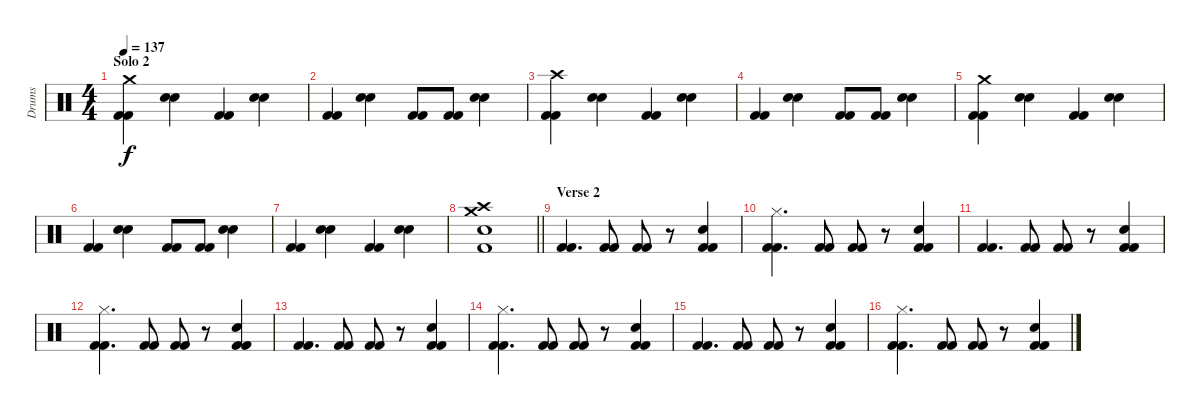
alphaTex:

\track ("Drums" "Drums") {instrument percussion}
\staff {score}
\articulation defaults
\ts (4 4)
\section ("" "Solo 2")
\tempo 137
\clef neutral
\ks c
("Kick (hit) 2" "Kick (hit) 2" "Crash medium (hit)").4{dy f} ("Electric Snare (hit)" "Electric Snare (hit)").4 ("Kick (hit) 2" "Kick (hit) 2").4 ("Electric Snare (hit)" "Electric Snare (hit)").4 |
("Kick (hit) 2" "Kick (hit) 2").4 ("Electric Snare (hit)" "Electric Snare (hit)").4 ("Kick (hit) 2" "Kick (hit) 2").8 ("Kick (hit) 2" "Kick (hit) 2").8 ("Electric Snare (hit)" "Electric Snare (hit)").4 |
("Kick (hit) 2" "Kick (hit) 2" "Crash high (hit)").4 ("Electric Snare (hit)" "Electric Snare (hit)").4 ("Kick (hit) 2" "Kick (hit) 2").4 ("Electric Snare (hit)" "Electric Snare (hit)").4 |
("Kick (hit) 2" "Kick (hit) 2").4 ("Electric Snare (hit)" "Electric Snare (hit)").4 ("Kick (hit) 2" "Kick (hit) 2").8 ("Kick (hit) 2" "Kick (hit) 2").8 ("Electric Snare (hit)" "Electric Snare (hit)").4 |
("Kick (hit) 2" "Kick (hit) 2" "Crash medium (hit)").4 ("Electric Snare (hit)" "Electric Snare (hit)").4 ("Kick (hit) 2" "Kick (hit) 2").4 ("Electric Snare (hit)" "Electric Snare (hit)").4 |
("Kick (hit) 2" "Kick (hit) 2").4 ("Electric Snare (hit)" "Electric Snare (hit)").4 ("Kick (hit) 2" "Kick (hit) 2").8 ("Kick (hit) 2" "Kick (hit) 2").8 ("Electric Snare (hit)" "Electric Snare (hit)").4 |
("Kick (hit) 2" "Kick (hit) 2").4 ("Electric Snare (hit)" "Electric Snare (hit)").4 ("Kick (hit) 2" "Kick (hit) 2").4 ("Electric Snare (hit)" "Electric Snare (hit)").4 |
\barLineRight lightlight
("Crash high (hit)" "Crash medium (hit)" "Electric Snare (hit)" "Kick (hit) 2").1 |
\section ("" "Verse 2")
("Kick (hit) 2" "Kick (hit) 2").4{d} ("Kick (hit) 2" "Kick (hit) 2").8 ("Kick (hit) 2" "Kick (hit) 2").8 r.8 ("Kick (hit) 2" "Kick (hit) 2" "Electric Snare (hit)").4 |
("Kick (hit) 2" "Kick (hit) 2" "Hi-Hat (closed)").4{d} ("Kick (hit) 2" "Kick (hit) 2").8 ("Kick (hit) 2" "Kick (hit) 2").8 r.8 ("Kick (hit) 2" "Kick (hit) 2" "Electric Snare (hit)").4 |
("Kick (hit) 2" "Kick (hit) 2").4{d} ("Kick (hit) 2" "Kick (hit) 2").8 ("Kick (hit) 2" "Kick (hit) 2").8 r.8 ("Kick (hit) 2" "Kick (hit) 2" "Electric Snare (hit)").4 |
("Kick (hit) 2" "Kick (hit) 2" "Hi-Hat (closed)").4{d} ("Kick (hit) 2" "Kick (hit) 2").8 ("Kick (hit) 2" "Kick (hit) 2").8 r.8 ("Kick (hit) 2" "Kick (hit) 2" "Electric Snare (hit)").4 |
("Kick (hit) 2" "Kick (hit) 2").4{d} ("Kick (hit) 2" "Kick (hit) 2").8 ("Kick (hit) 2" "Kick (hit) 2").8 r.8 ("Kick (hit) 2" "Kick (hit) 2" "Electric Snare (hit)").4 |
("Kick (hit) 2" "Kick (hit) 2" "Hi-Hat (closed)").4{d} ("Kick (hit) 2" "Kick (hit) 2").8 ("Kick (hit) 2" "Kick (hit) 2").8 r.8 ("Kick (hit) 2" "Kick (hit) 2" "Electric Snare (hit)").4 |
("Kick (hit) 2" "Kick (hit) 2").4{d} ("Kick (hit) 2" "Kick (hit) 2").8 ("Kick (hit) 2" "Kick (hit) 2").8 r.8 ("Kick (hit) 2" "Kick (hit) 2" "Electric Snare (hit)").4 |
("Kick (hit) 2" "Kick (hit) 2" "Hi-Hat (closed)").4{d} ("Kick (hit) 2" "Kick (hit) 2").8 ("Kick (hit) 2" "Kick (hit) 2").8 r.8 ("Kick (hit) 2" "Kick (hit) 2" "Electric Snare (hit)").4
